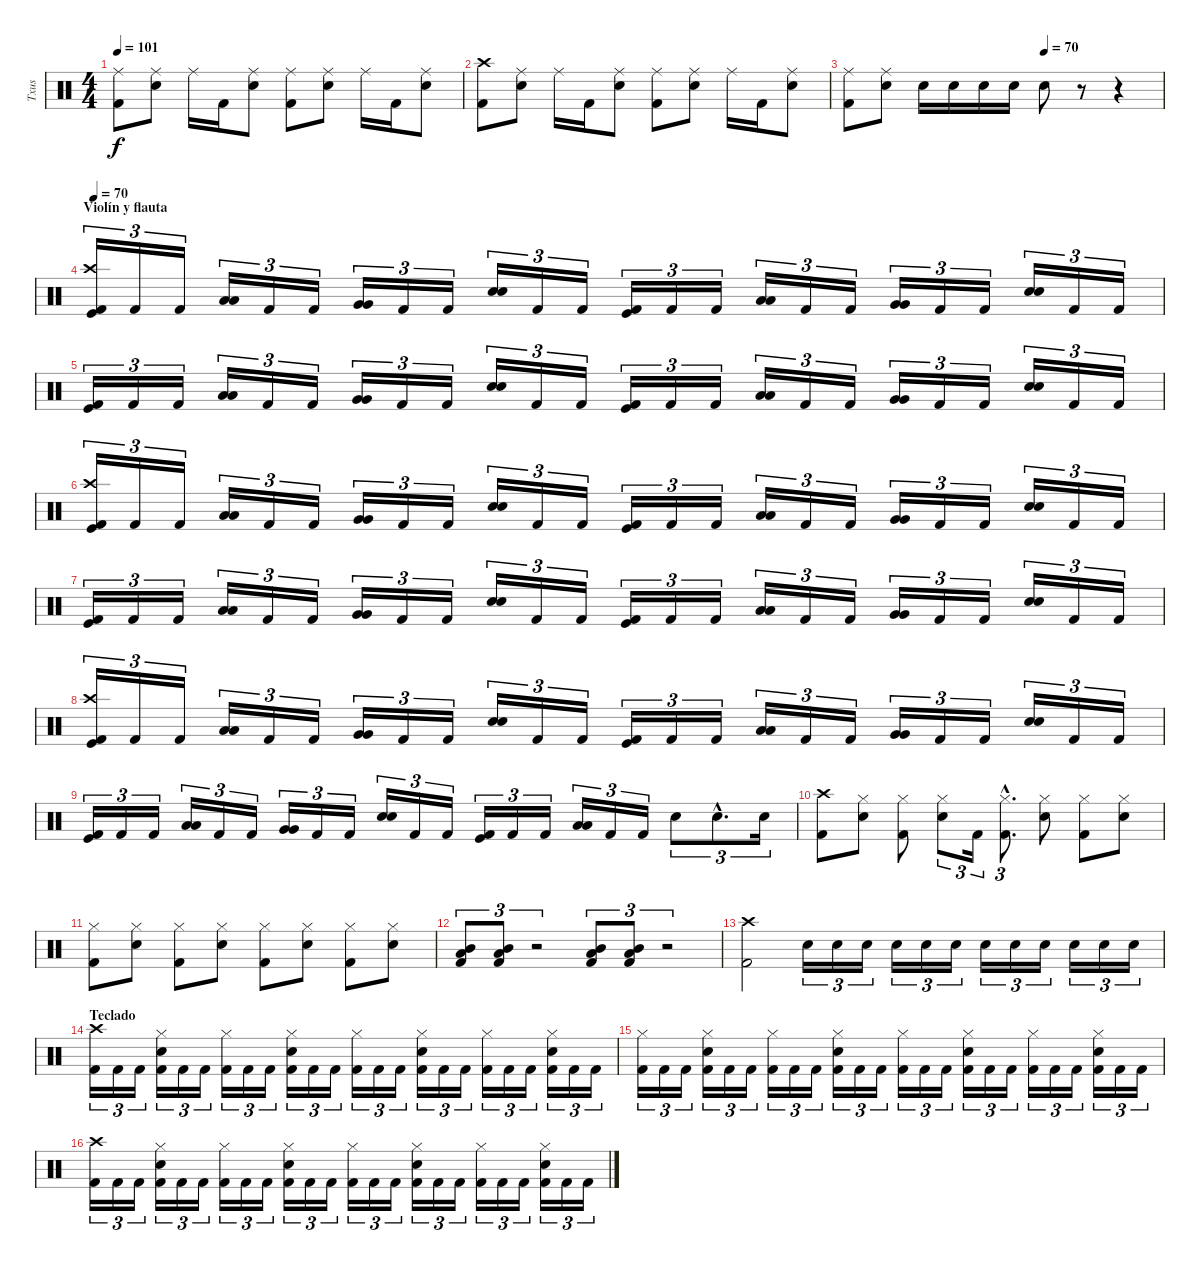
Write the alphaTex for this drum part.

\track ("Txus" "Txus") {instrument percussion}
\staff {score}
\articulation defaults
\ts (4 4)
\tempo 101
\clef neutral
\ks c
("Kick (hit) 2" "Ride (middle)").8{dy f} ("Electric Snare (hit)" "Ride (middle)").8 "Ride (middle)".16 "Kick (hit) 2".16 ("Electric Snare (hit)" "Ride (middle)").8 ("Kick (hit) 2" "Ride (middle)").8 ("Electric Snare (hit)" "Ride (middle)").8 "Ride (middle)".16 "Kick (hit) 2".16 ("Electric Snare (hit)" "Ride (middle)").8 |
("Kick (hit) 2" "Crash high (hit)").8 ("Electric Snare (hit)" "Ride (middle)").8 "Ride (middle)".16 "Kick (hit) 2".16 ("Electric Snare (hit)" "Ride (middle)").8 ("Kick (hit) 2" "Ride (middle)").8 ("Electric Snare (hit)" "Ride (middle)").8 "Ride (middle)".16 "Kick (hit) 2".16 ("Electric Snare (hit)" "Ride (middle)").8 |
\tempo (70 0.625)
("Kick (hit) 2" "Ride (middle)").8 ("Electric Snare (hit)" "Ride (middle)").8 "Electric Snare (hit)".16 "Electric Snare (hit)".16 "Electric Snare (hit)".16 "Electric Snare (hit)".16 "Electric Snare (hit)".8 r.8 r.4 |
\section ("" "Violín y flauta")
\tempo 70
("Kick (hit) 2" "Kick (hit)" "Crash high (hit)").16{tu (3 2)} "Kick (hit) 2".16{tu (3 2)} "Kick (hit) 2".16{tu (3 2)} ("Low Tom (hit)" "Low Tom (hit)").16{tu (3 2)} "Kick (hit) 2".16{tu (3 2)} "Kick (hit) 2".16{tu (3 2)} ("Very Low Tom (hit)" "Very Low Tom (hit)").16{tu (3 2)} "Kick (hit) 2".16{tu (3 2)} "Kick (hit) 2".16{tu (3 2)} ("Electric Snare (hit)" "Electric Snare (hit)").16{tu (3 2)} "Kick (hit) 2".16{tu (3 2)} "Kick (hit) 2".16{tu (3 2)} ("Kick (hit) 2" "Kick (hit)").16{tu (3 2)} "Kick (hit) 2".16{tu (3 2)} "Kick (hit) 2".16{tu (3 2)} ("Low Tom (hit)" "Low Tom (hit)").16{tu (3 2)} "Kick (hit) 2".16{tu (3 2)} "Kick (hit) 2".16{tu (3 2)} ("Very Low Tom (hit)" "Very Low Tom (hit)").16{tu (3 2)} "Kick (hit) 2".16{tu (3 2)} "Kick (hit) 2".16{tu (3 2)} ("Electric Snare (hit)" "Electric Snare (hit)").16{tu (3 2)} "Kick (hit) 2".16{tu (3 2)} "Kick (hit) 2".16{tu (3 2)} |
("Kick (hit) 2" "Kick (hit)").16{tu (3 2)} "Kick (hit) 2".16{tu (3 2)} "Kick (hit) 2".16{tu (3 2)} ("Low Tom (hit)" "Low Tom (hit)").16{tu (3 2)} "Kick (hit) 2".16{tu (3 2)} "Kick (hit) 2".16{tu (3 2)} ("Very Low Tom (hit)" "Very Low Tom (hit)").16{tu (3 2)} "Kick (hit) 2".16{tu (3 2)} "Kick (hit) 2".16{tu (3 2)} ("Electric Snare (hit)" "Electric Snare (hit)").16{tu (3 2)} "Kick (hit) 2".16{tu (3 2)} "Kick (hit) 2".16{tu (3 2)} ("Kick (hit) 2" "Kick (hit)").16{tu (3 2)} "Kick (hit) 2".16{tu (3 2)} "Kick (hit) 2".16{tu (3 2)} ("Low Tom (hit)" "Low Tom (hit)").16{tu (3 2)} "Kick (hit) 2".16{tu (3 2)} "Kick (hit) 2".16{tu (3 2)} ("Very Low Tom (hit)" "Very Low Tom (hit)").16{tu (3 2)} "Kick (hit) 2".16{tu (3 2)} "Kick (hit) 2".16{tu (3 2)} ("Electric Snare (hit)" "Electric Snare (hit)").16{tu (3 2)} "Kick (hit) 2".16{tu (3 2)} "Kick (hit) 2".16{tu (3 2)} |
("Kick (hit) 2" "Kick (hit)" "Crash high (hit)").16{tu (3 2)} "Kick (hit) 2".16{tu (3 2)} "Kick (hit) 2".16{tu (3 2)} ("Low Tom (hit)" "Low Tom (hit)").16{tu (3 2)} "Kick (hit) 2".16{tu (3 2)} "Kick (hit) 2".16{tu (3 2)} ("Very Low Tom (hit)" "Very Low Tom (hit)").16{tu (3 2)} "Kick (hit) 2".16{tu (3 2)} "Kick (hit) 2".16{tu (3 2)} ("Electric Snare (hit)" "Electric Snare (hit)").16{tu (3 2)} "Kick (hit) 2".16{tu (3 2)} "Kick (hit) 2".16{tu (3 2)} ("Kick (hit) 2" "Kick (hit)").16{tu (3 2)} "Kick (hit) 2".16{tu (3 2)} "Kick (hit) 2".16{tu (3 2)} ("Low Tom (hit)" "Low Tom (hit)").16{tu (3 2)} "Kick (hit) 2".16{tu (3 2)} "Kick (hit) 2".16{tu (3 2)} ("Very Low Tom (hit)" "Very Low Tom (hit)").16{tu (3 2)} "Kick (hit) 2".16{tu (3 2)} "Kick (hit) 2".16{tu (3 2)} ("Electric Snare (hit)" "Electric Snare (hit)").16{tu (3 2)} "Kick (hit) 2".16{tu (3 2)} "Kick (hit) 2".16{tu (3 2)} |
("Kick (hit) 2" "Kick (hit)").16{tu (3 2)} "Kick (hit) 2".16{tu (3 2)} "Kick (hit) 2".16{tu (3 2)} ("Low Tom (hit)" "Low Tom (hit)").16{tu (3 2)} "Kick (hit) 2".16{tu (3 2)} "Kick (hit) 2".16{tu (3 2)} ("Very Low Tom (hit)" "Very Low Tom (hit)").16{tu (3 2)} "Kick (hit) 2".16{tu (3 2)} "Kick (hit) 2".16{tu (3 2)} ("Electric Snare (hit)" "Electric Snare (hit)").16{tu (3 2)} "Kick (hit) 2".16{tu (3 2)} "Kick (hit) 2".16{tu (3 2)} ("Kick (hit) 2" "Kick (hit)").16{tu (3 2)} "Kick (hit) 2".16{tu (3 2)} "Kick (hit) 2".16{tu (3 2)} ("Low Tom (hit)" "Low Tom (hit)").16{tu (3 2)} "Kick (hit) 2".16{tu (3 2)} "Kick (hit) 2".16{tu (3 2)} ("Very Low Tom (hit)" "Very Low Tom (hit)").16{tu (3 2)} "Kick (hit) 2".16{tu (3 2)} "Kick (hit) 2".16{tu (3 2)} ("Electric Snare (hit)" "Electric Snare (hit)").16{tu (3 2)} "Kick (hit) 2".16{tu (3 2)} "Kick (hit) 2".16{tu (3 2)} |
("Kick (hit) 2" "Kick (hit)" "Crash high (hit)").16{tu (3 2)} "Kick (hit) 2".16{tu (3 2)} "Kick (hit) 2".16{tu (3 2)} ("Low Tom (hit)" "Low Tom (hit)").16{tu (3 2)} "Kick (hit) 2".16{tu (3 2)} "Kick (hit) 2".16{tu (3 2)} ("Very Low Tom (hit)" "Very Low Tom (hit)").16{tu (3 2)} "Kick (hit) 2".16{tu (3 2)} "Kick (hit) 2".16{tu (3 2)} ("Electric Snare (hit)" "Electric Snare (hit)").16{tu (3 2)} "Kick (hit) 2".16{tu (3 2)} "Kick (hit) 2".16{tu (3 2)} ("Kick (hit) 2" "Kick (hit)").16{tu (3 2)} "Kick (hit) 2".16{tu (3 2)} "Kick (hit) 2".16{tu (3 2)} ("Low Tom (hit)" "Low Tom (hit)").16{tu (3 2)} "Kick (hit) 2".16{tu (3 2)} "Kick (hit) 2".16{tu (3 2)} ("Very Low Tom (hit)" "Very Low Tom (hit)").16{tu (3 2)} "Kick (hit) 2".16{tu (3 2)} "Kick (hit) 2".16{tu (3 2)} ("Electric Snare (hit)" "Electric Snare (hit)").16{tu (3 2)} "Kick (hit) 2".16{tu (3 2)} "Kick (hit) 2".16{tu (3 2)} |
("Kick (hit) 2" "Kick (hit)").16{tu (3 2)} "Kick (hit) 2".16{tu (3 2)} "Kick (hit) 2".16{tu (3 2)} ("Low Tom (hit)" "Low Tom (hit)").16{tu (3 2)} "Kick (hit) 2".16{tu (3 2)} "Kick (hit) 2".16{tu (3 2)} ("Very Low Tom (hit)" "Very Low Tom (hit)").16{tu (3 2)} "Kick (hit) 2".16{tu (3 2)} "Kick (hit) 2".16{tu (3 2)} ("Electric Snare (hit)" "Electric Snare (hit)").16{tu (3 2)} "Kick (hit) 2".16{tu (3 2)} "Kick (hit) 2".16{tu (3 2)} ("Kick (hit) 2" "Kick (hit)").16{tu (3 2)} "Kick (hit) 2".16{tu (3 2)} "Kick (hit) 2".16{tu (3 2)} ("Low Tom (hit)" "Low Tom (hit)").16{tu (3 2)} "Kick (hit) 2".16{tu (3 2)} "Kick (hit) 2".16{tu (3 2)} "Electric Snare (hit)".8{tu (3 2)} "Electric Snare (hit)"{hac}.8{d tu (3 2)} "Electric Snare (hit)".16{tu (3 2)} |
("Kick (hit) 2" "Crash high (hit)").8 ("Electric Snare (hit)" "Hi-Hat (closed)").8 ("Kick (hit) 2" "Hi-Hat (closed)").8 ("Electric Snare (hit)" "Hi-Hat (closed)").8{tu (3 2)} "Kick (hit) 2".16{tu (3 2)} ("Kick (hit) 2"{hac} "Hi-Hat (closed)"{hac}).8{d tu (3 2)} ("Electric Snare (hit)" "Hi-Hat (closed)").8 ("Kick (hit) 2" "Hi-Hat (closed)").8 ("Electric Snare (hit)" "Hi-Hat (closed)").8 |
("Kick (hit) 2" "Hi-Hat (closed)").8 ("Electric Snare (hit)" "Hi-Hat (closed)").8 ("Kick (hit) 2" "Hi-Hat (closed)").8 ("Electric Snare (hit)" "Hi-Hat (closed)").8 ("Kick (hit) 2" "Hi-Hat (closed)").8 ("Electric Snare (hit)" "Hi-Hat (closed)").8 ("Kick (hit) 2" "Hi-Hat (closed)").8 ("Electric Snare (hit)" "Hi-Hat (closed)").8 |
("Kick (hit) 2" "Low Tom (hit)" "Mid Tom (hit)").8{tu (3 2)} ("Kick (hit) 2" "Low Tom (hit)" "Mid Tom (hit)").8{tu (3 2)} r.2{tu (3 2)} ("Kick (hit) 2" "Low Tom (hit)" "Mid Tom (hit)").8{tu (3 2)} ("Kick (hit) 2" "Low Tom (hit)" "Mid Tom (hit)").8{tu (3 2)} r.2{tu (3 2)} |
("Kick (hit) 2" "Crash high (hit)").2 "Electric Snare (hit)".16{tu (3 2)} "Electric Snare (hit)".16{tu (3 2)} "Electric Snare (hit)".16{tu (3 2)} "Electric Snare (hit)".16{tu (3 2)} "Electric Snare (hit)".16{tu (3 2)} "Electric Snare (hit)".16{tu (3 2)} "Electric Snare (hit)".16{tu (3 2)} "Electric Snare (hit)".16{tu (3 2)} "Electric Snare (hit)".16{tu (3 2)} "Electric Snare (hit)".16{tu (3 2)} "Electric Snare (hit)".16{tu (3 2)} "Electric Snare (hit)".16{tu (3 2)} |
\section ("" "Teclado")
("Kick (hit) 2" "Crash high (hit)").16{tu (3 2)} "Kick (hit) 2".16{tu (3 2)} "Kick (hit) 2".16{tu (3 2)} ("Kick (hit) 2" "Electric Snare (hit)" "Hi-Hat (closed)").16{tu (3 2)} "Kick (hit) 2".16{tu (3 2)} "Kick (hit) 2".16{tu (3 2)} ("Kick (hit) 2" "Hi-Hat (closed)").16{tu (3 2)} "Kick (hit) 2".16{tu (3 2)} "Kick (hit) 2".16{tu (3 2)} ("Kick (hit) 2" "Electric Snare (hit)" "Hi-Hat (closed)").16{tu (3 2)} "Kick (hit) 2".16{tu (3 2)} "Kick (hit) 2".16{tu (3 2)} ("Kick (hit) 2" "Hi-Hat (closed)").16{tu (3 2)} "Kick (hit) 2".16{tu (3 2)} "Kick (hit) 2".16{tu (3 2)} ("Kick (hit) 2" "Electric Snare (hit)" "Hi-Hat (closed)").16{tu (3 2)} "Kick (hit) 2".16{tu (3 2)} "Kick (hit) 2".16{tu (3 2)} ("Kick (hit) 2" "Hi-Hat (closed)").16{tu (3 2)} "Kick (hit) 2".16{tu (3 2)} "Kick (hit) 2".16{tu (3 2)} ("Kick (hit) 2" "Electric Snare (hit)" "Hi-Hat (closed)").16{tu (3 2)} "Kick (hit) 2".16{tu (3 2)} "Kick (hit) 2".16{tu (3 2)} |
("Kick (hit) 2" "Hi-Hat (closed)").16{tu (3 2)} "Kick (hit) 2".16{tu (3 2)} "Kick (hit) 2".16{tu (3 2)} ("Kick (hit) 2" "Electric Snare (hit)" "Hi-Hat (closed)").16{tu (3 2)} "Kick (hit) 2".16{tu (3 2)} "Kick (hit) 2".16{tu (3 2)} ("Kick (hit) 2" "Hi-Hat (closed)").16{tu (3 2)} "Kick (hit) 2".16{tu (3 2)} "Kick (hit) 2".16{tu (3 2)} ("Kick (hit) 2" "Electric Snare (hit)" "Hi-Hat (closed)").16{tu (3 2)} "Kick (hit) 2".16{tu (3 2)} "Kick (hit) 2".16{tu (3 2)} ("Kick (hit) 2" "Hi-Hat (closed)").16{tu (3 2)} "Kick (hit) 2".16{tu (3 2)} "Kick (hit) 2".16{tu (3 2)} ("Kick (hit) 2" "Electric Snare (hit)" "Hi-Hat (closed)").16{tu (3 2)} "Kick (hit) 2".16{tu (3 2)} "Kick (hit) 2".16{tu (3 2)} ("Kick (hit) 2" "Hi-Hat (closed)").16{tu (3 2)} "Kick (hit) 2".16{tu (3 2)} "Kick (hit) 2".16{tu (3 2)} ("Kick (hit) 2" "Electric Snare (hit)" "Hi-Hat (closed)").16{tu (3 2)} "Kick (hit) 2".16{tu (3 2)} "Kick (hit) 2".16{tu (3 2)} |
("Kick (hit) 2" "Crash high (hit)").16{tu (3 2)} "Kick (hit) 2".16{tu (3 2)} "Kick (hit) 2".16{tu (3 2)} ("Kick (hit) 2" "Electric Snare (hit)" "Hi-Hat (closed)").16{tu (3 2)} "Kick (hit) 2".16{tu (3 2)} "Kick (hit) 2".16{tu (3 2)} ("Kick (hit) 2" "Hi-Hat (closed)").16{tu (3 2)} "Kick (hit) 2".16{tu (3 2)} "Kick (hit) 2".16{tu (3 2)} ("Kick (hit) 2" "Electric Snare (hit)" "Hi-Hat (closed)").16{tu (3 2)} "Kick (hit) 2".16{tu (3 2)} "Kick (hit) 2".16{tu (3 2)} ("Kick (hit) 2" "Hi-Hat (closed)").16{tu (3 2)} "Kick (hit) 2".16{tu (3 2)} "Kick (hit) 2".16{tu (3 2)} ("Kick (hit) 2" "Electric Snare (hit)" "Hi-Hat (closed)").16{tu (3 2)} "Kick (hit) 2".16{tu (3 2)} "Kick (hit) 2".16{tu (3 2)} ("Kick (hit) 2" "Hi-Hat (closed)").16{tu (3 2)} "Kick (hit) 2".16{tu (3 2)} "Kick (hit) 2".16{tu (3 2)} ("Kick (hit) 2" "Electric Snare (hit)" "Hi-Hat (closed)").16{tu (3 2)} "Kick (hit) 2".16{tu (3 2)} "Kick (hit) 2".16{tu (3 2)}
